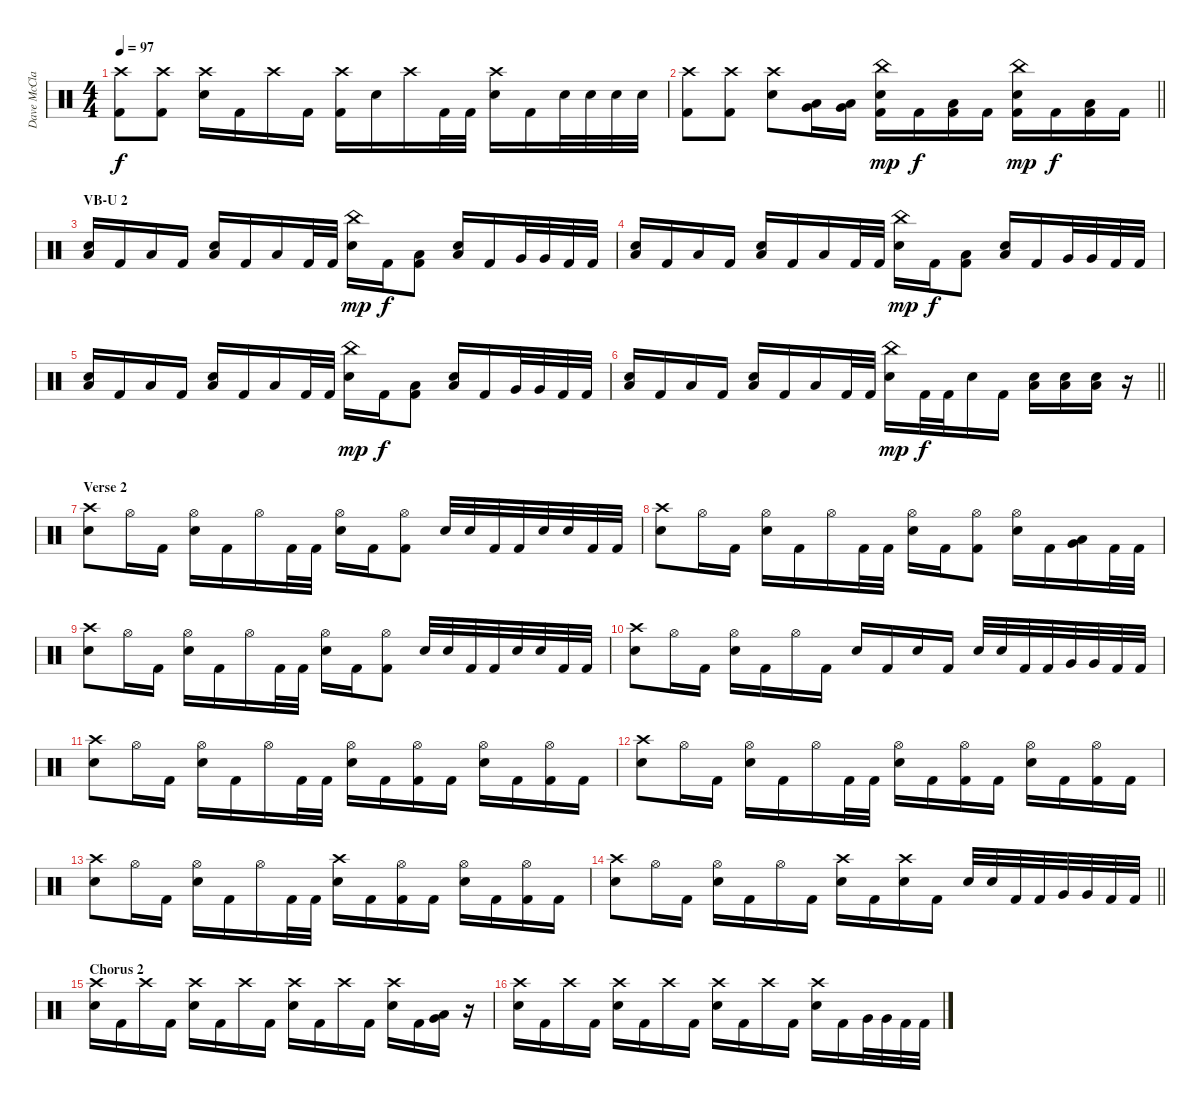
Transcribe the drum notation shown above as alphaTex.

\track ("Dave McClain" "Dave McCla") {instrument percussion}
\staff {score}
\articulation defaults
\ts (4 4)
\tempo 97
\clef neutral
\ks c
("Crash high (hit)" "Kick (hit) 2").8{dy f} ("Crash high (hit)" "Kick (hit) 2").8 ("Crash high (hit)" "Snare (hit) 2").16 "Kick (hit) 2".16 "Crash high (hit)".16 "Kick (hit) 2".16 ("Crash high (hit)" "Kick (hit) 2").16 "Snare (hit) 2".16 "Crash high (hit)".16 "Kick (hit) 2".32 "Kick (hit) 2".32 ("Crash high (hit)" "Snare (hit) 2").16 "Kick (hit) 2".16 "Snare (hit) 2".32 "Snare (hit) 2".32 "Snare (hit) 2".32 "Snare (hit) 2".32 |
\barLineRight lightlight
("Crash high (hit)" "Kick (hit) 2").8 ("Crash high (hit)" "Kick (hit) 2").8 ("Crash high (hit)" "Snare (hit) 2").8 ("Very Low Tom (hit)" "Low Floor Tom (hit)").16 ("Very Low Tom (hit)" "Low Floor Tom (hit)").16 ("China (hit)" "Snare (hit) 2" "Kick (hit) 2").16{dy mp} "Kick (hit) 2".16{dy f} ("Low Floor Tom (hit)" "Kick (hit) 2").16 "Kick (hit) 2".16 ("China (hit)" "Snare (hit) 2" "Kick (hit) 2").16{dy mp} "Kick (hit) 2".16{dy f} ("Low Floor Tom (hit)" "Kick (hit) 2").16 "Kick (hit) 2".16 |
\section ("" "VB-U 2")
("Snare (hit) 2" "Low Floor Tom (hit)").16 "Kick (hit) 2".16 "Low Floor Tom (hit)".16 "Kick (hit) 2".16 ("Snare (hit) 2" "Low Floor Tom (hit)").16 "Kick (hit) 2".16 "Low Floor Tom (hit)".16 "Kick (hit) 2".32 "Kick (hit) 2".32 ("China (hit)" "Snare (hit) 2").16{dy mp} "Kick (hit) 2".16{dy f} ("Low Floor Tom (hit)" "Kick (hit) 2").8 ("Snare (hit) 2" "Low Floor Tom (hit)").16 "Kick (hit) 2".16 "Very Low Tom (hit)".32 "Very Low Tom (hit)".32 "Kick (hit) 2".32 "Kick (hit) 2".32 |
("Snare (hit) 2" "Low Floor Tom (hit)").16 "Kick (hit) 2".16 "Low Floor Tom (hit)".16 "Kick (hit) 2".16 ("Snare (hit) 2" "Low Floor Tom (hit)").16 "Kick (hit) 2".16 "Low Floor Tom (hit)".16 "Kick (hit) 2".32 "Kick (hit) 2".32 ("China (hit)" "Snare (hit) 2").16{dy mp} "Kick (hit) 2".16{dy f} ("Low Floor Tom (hit)" "Kick (hit) 2").8 ("Snare (hit) 2" "Low Floor Tom (hit)").16 "Kick (hit) 2".16 "Very Low Tom (hit)".32 "Very Low Tom (hit)".32 "Kick (hit) 2".32 "Kick (hit) 2".32 |
("Snare (hit) 2" "Low Floor Tom (hit)").16 "Kick (hit) 2".16 "Low Floor Tom (hit)".16 "Kick (hit) 2".16 ("Snare (hit) 2" "Low Floor Tom (hit)").16 "Kick (hit) 2".16 "Low Floor Tom (hit)".16 "Kick (hit) 2".32 "Kick (hit) 2".32 ("China (hit)" "Snare (hit) 2").16{dy mp} "Kick (hit) 2".16{dy f} ("Low Floor Tom (hit)" "Kick (hit) 2").8 ("Snare (hit) 2" "Low Floor Tom (hit)").16 "Kick (hit) 2".16 "Very Low Tom (hit)".32 "Very Low Tom (hit)".32 "Kick (hit) 2".32 "Kick (hit) 2".32 |
\barLineRight lightlight
("Snare (hit) 2" "Low Floor Tom (hit)").16 "Kick (hit) 2".16 "Low Floor Tom (hit)".16 "Kick (hit) 2".16 ("Snare (hit) 2" "Low Floor Tom (hit)").16 "Kick (hit) 2".16 "Low Floor Tom (hit)".16 "Kick (hit) 2".32 "Kick (hit) 2".32 ("China (hit)" "Snare (hit) 2").16{dy mp} "Kick (hit) 2".32{dy f} "Kick (hit) 2".32 "Snare (hit) 2".16 "Kick (hit) 2".16 ("Low Floor Tom (hit)" "Snare (hit) 2").16 ("Low Floor Tom (hit)" "Snare (hit) 2").16 ("Low Floor Tom (hit)" "Snare (hit) 2").16 r.16 |
\section ("" "Verse 2")
("Crash high (hit)" "Snare (hit) 2").8 "Hi-Hat (open)".16 "Kick (hit) 2".16 ("Hi-Hat (open)" "Snare (hit) 2").16 "Kick (hit) 2".16 "Hi-Hat (open)".16 "Kick (hit) 2".32 "Kick (hit) 2".32 ("Hi-Hat (open)" "Snare (hit) 2").16 "Kick (hit) 2".16 ("Hi-Hat (open)" "Kick (hit) 2").8 "Snare (hit) 2".32 "Snare (hit) 2".32 "Kick (hit) 2".32 "Kick (hit) 2".32 "Snare (hit) 2".32 "Snare (hit) 2".32 "Kick (hit) 2".32 "Kick (hit) 2".32 |
("Crash high (hit)" "Snare (hit) 2").8 "Hi-Hat (open)".16 "Kick (hit) 2".16 ("Hi-Hat (open)" "Snare (hit) 2").16 "Kick (hit) 2".16 "Hi-Hat (open)".16 "Kick (hit) 2".32 "Kick (hit) 2".32 ("Hi-Hat (open)" "Snare (hit) 2").16 "Kick (hit) 2".16 ("Hi-Hat (open)" "Kick (hit) 2").8 ("Hi-Hat (open)" "Snare (hit) 2").16 "Kick (hit) 2".16 ("Very Low Tom (hit)" "Low Floor Tom (hit)").16 "Kick (hit) 2".32 "Kick (hit) 2".32 |
("Crash high (hit)" "Snare (hit) 2").8 "Hi-Hat (open)".16 "Kick (hit) 2".16 ("Hi-Hat (open)" "Snare (hit) 2").16 "Kick (hit) 2".16 "Hi-Hat (open)".16 "Kick (hit) 2".32 "Kick (hit) 2".32 ("Hi-Hat (open)" "Snare (hit) 2").16 "Kick (hit) 2".16 ("Hi-Hat (open)" "Kick (hit) 2").8 "Snare (hit) 2".32 "Snare (hit) 2".32 "Kick (hit) 2".32 "Kick (hit) 2".32 "Snare (hit) 2".32 "Snare (hit) 2".32 "Kick (hit) 2".32 "Kick (hit) 2".32 |
("Crash high (hit)" "Snare (hit) 2").8 "Hi-Hat (open)".16 "Kick (hit) 2".16 ("Hi-Hat (open)" "Snare (hit) 2").16 "Kick (hit) 2".16 "Hi-Hat (open)".16 "Kick (hit) 2".16 "Snare (hit) 2".16 "Kick (hit) 2".16 "Snare (hit) 2".16 "Kick (hit) 2".16 "Snare (hit) 2".32 "Snare (hit) 2".32 "Kick (hit) 2".32 "Kick (hit) 2".32 "Very Low Tom (hit)".32 "Very Low Tom (hit)".32 "Kick (hit) 2".32 "Kick (hit) 2".32 |
("Crash high (hit)" "Snare (hit) 2").8 "Hi-Hat (open)".16 "Kick (hit) 2".16 ("Hi-Hat (open)" "Snare (hit) 2").16 "Kick (hit) 2".16 "Hi-Hat (open)".16 "Kick (hit) 2".32 "Kick (hit) 2".32 ("Hi-Hat (open)" "Snare (hit) 2").16 "Kick (hit) 2".16 ("Hi-Hat (open)" "Kick (hit) 2").16 "Kick (hit) 2".16 ("Hi-Hat (open)" "Snare (hit) 2").16 "Kick (hit) 2".16 ("Hi-Hat (open)" "Kick (hit) 2").16 "Kick (hit) 2".16 |
("Crash high (hit)" "Snare (hit) 2").8 "Hi-Hat (open)".16 "Kick (hit) 2".16 ("Hi-Hat (open)" "Snare (hit) 2").16 "Kick (hit) 2".16 "Hi-Hat (open)".16 "Kick (hit) 2".32 "Kick (hit) 2".32 ("Hi-Hat (open)" "Snare (hit) 2").16 "Kick (hit) 2".16 ("Hi-Hat (open)" "Kick (hit) 2").16 "Kick (hit) 2".16 ("Hi-Hat (open)" "Snare (hit) 2").16 "Kick (hit) 2".16 ("Hi-Hat (open)" "Kick (hit) 2").16 "Kick (hit) 2".16 |
("Crash high (hit)" "Snare (hit) 2").8 "Hi-Hat (open)".16 "Kick (hit) 2".16 ("Hi-Hat (open)" "Snare (hit) 2").16 "Kick (hit) 2".16 "Hi-Hat (open)".16 "Kick (hit) 2".32 "Kick (hit) 2".32 ("Crash high (hit)" "Snare (hit) 2").16 "Kick (hit) 2".16 ("Hi-Hat (open)" "Kick (hit) 2").16 "Kick (hit) 2".16 ("Hi-Hat (open)" "Snare (hit) 2").16 "Kick (hit) 2".16 ("Hi-Hat (open)" "Kick (hit) 2").16 "Kick (hit) 2".16 |
\barLineRight lightlight
("Crash high (hit)" "Snare (hit) 2").8 "Hi-Hat (open)".16 "Kick (hit) 2".16 ("Hi-Hat (open)" "Snare (hit) 2").16 "Kick (hit) 2".16 "Hi-Hat (open)".16 "Kick (hit) 2".16 ("Crash high (hit)" "Snare (hit) 2").16 "Kick (hit) 2".16 ("Crash high (hit)" "Snare (hit) 2").16 "Kick (hit) 2".16 "Snare (hit) 2".32 "Snare (hit) 2".32 "Kick (hit) 2".32 "Kick (hit) 2".32 "Very Low Tom (hit)".32 "Very Low Tom (hit)".32 "Kick (hit) 2".32 "Kick (hit) 2".32 |
\section ("" "Chorus 2")
("Crash high (hit)" "Snare (hit) 2").16 "Kick (hit) 2".16 "Crash high (hit)".16 "Kick (hit) 2".16 ("Crash high (hit)" "Snare (hit) 2").16 "Kick (hit) 2".16 "Crash high (hit)".16 "Kick (hit) 2".16 ("Crash high (hit)" "Snare (hit) 2").16 "Kick (hit) 2".16 "Crash high (hit)".16 "Kick (hit) 2".16 ("Crash high (hit)" "Snare (hit) 2").16 "Kick (hit) 2".16 ("Very Low Tom (hit)" "Low Floor Tom (hit)").16 r.16 |
("Crash high (hit)" "Snare (hit) 2").16 "Kick (hit) 2".16 "Crash high (hit)".16 "Kick (hit) 2".16 ("Crash high (hit)" "Snare (hit) 2").16 "Kick (hit) 2".16 "Crash high (hit)".16 "Kick (hit) 2".16 ("Crash high (hit)" "Snare (hit) 2").16 "Kick (hit) 2".16 "Crash high (hit)".16 "Kick (hit) 2".16 ("Crash high (hit)" "Snare (hit) 2").16 "Kick (hit) 2".16 "Very Low Tom (hit)".32 "Very Low Tom (hit)".32 "Kick (hit) 2".32 "Kick (hit) 2".32
